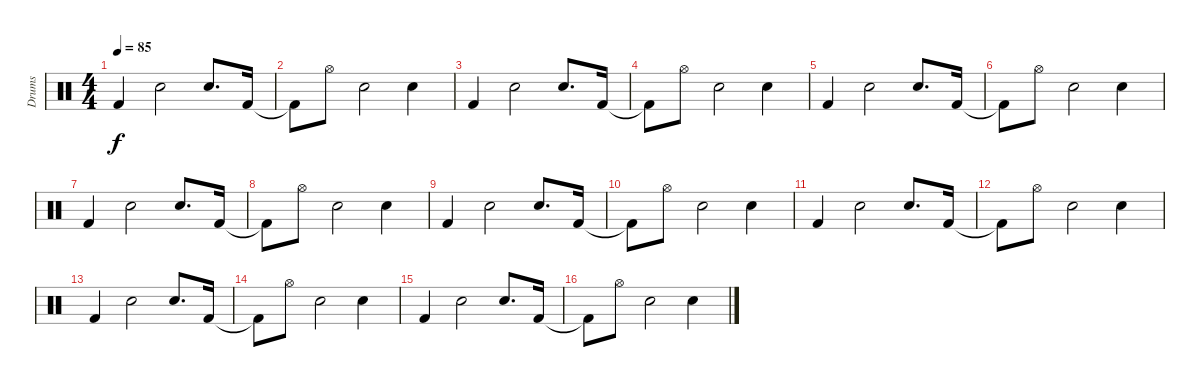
\track ("Drums" "Drums") {instrument percussion}
\staff {score}
\articulation defaults
\ts (4 4)
\tempo 85
\clef neutral
\ks c "Kick (hit) 2".4{dy f} "Snare (hit) 2".2 "Snare (hit) 2".8{d} "Kick (hit) 2".16
|
"Kick (hit) 2"{t}.8 "Hi-Hat (open)".8 "Snare (hit) 2".2 "Snare (hit) 2".4 |
"Kick (hit) 2".4 "Snare (hit) 2".2 "Snare (hit) 2".8{d} "Kick (hit) 2".16 |
"Kick (hit) 2"{t}.8 "Hi-Hat (open)".8 "Snare (hit) 2".2 "Snare (hit) 2".4 |
"Kick (hit) 2".4 "Snare (hit) 2".2 "Snare (hit) 2".8{d} "Kick (hit) 2".16 |
"Kick (hit) 2"{t}.8 "Hi-Hat (open)".8 "Snare (hit) 2".2 "Snare (hit) 2".4 |
"Kick (hit) 2".4 "Snare (hit) 2".2 "Snare (hit) 2".8{d} "Kick (hit) 2".16 |
"Kick (hit) 2"{t}.8 "Hi-Hat (open)".8 "Snare (hit) 2".2 "Snare (hit) 2".4 |
"Kick (hit) 2".4 "Snare (hit) 2".2 "Snare (hit) 2".8{d} "Kick (hit) 2".16 |
"Kick (hit) 2"{t}.8 "Hi-Hat (open)".8 "Snare (hit) 2".2 "Snare (hit) 2".4 |
"Kick (hit) 2".4 "Snare (hit) 2".2 "Snare (hit) 2".8{d} "Kick (hit) 2".16 |
"Kick (hit) 2"{t}.8 "Hi-Hat (open)".8 "Snare (hit) 2".2 "Snare (hit) 2".4 |
"Kick (hit) 2".4 "Snare (hit) 2".2 "Snare (hit) 2".8{d} "Kick (hit) 2".16 |
"Kick (hit) 2"{t}.8 "Hi-Hat (open)".8 "Snare (hit) 2".2 "Snare (hit) 2".4 |
"Kick (hit) 2".4 "Snare (hit) 2".2 "Snare (hit) 2".8{d} "Kick (hit) 2".16 |
"Kick (hit) 2"{t}.8 "Hi-Hat (open)".8 "Snare (hit) 2".2 "Snare (hit) 2".4
